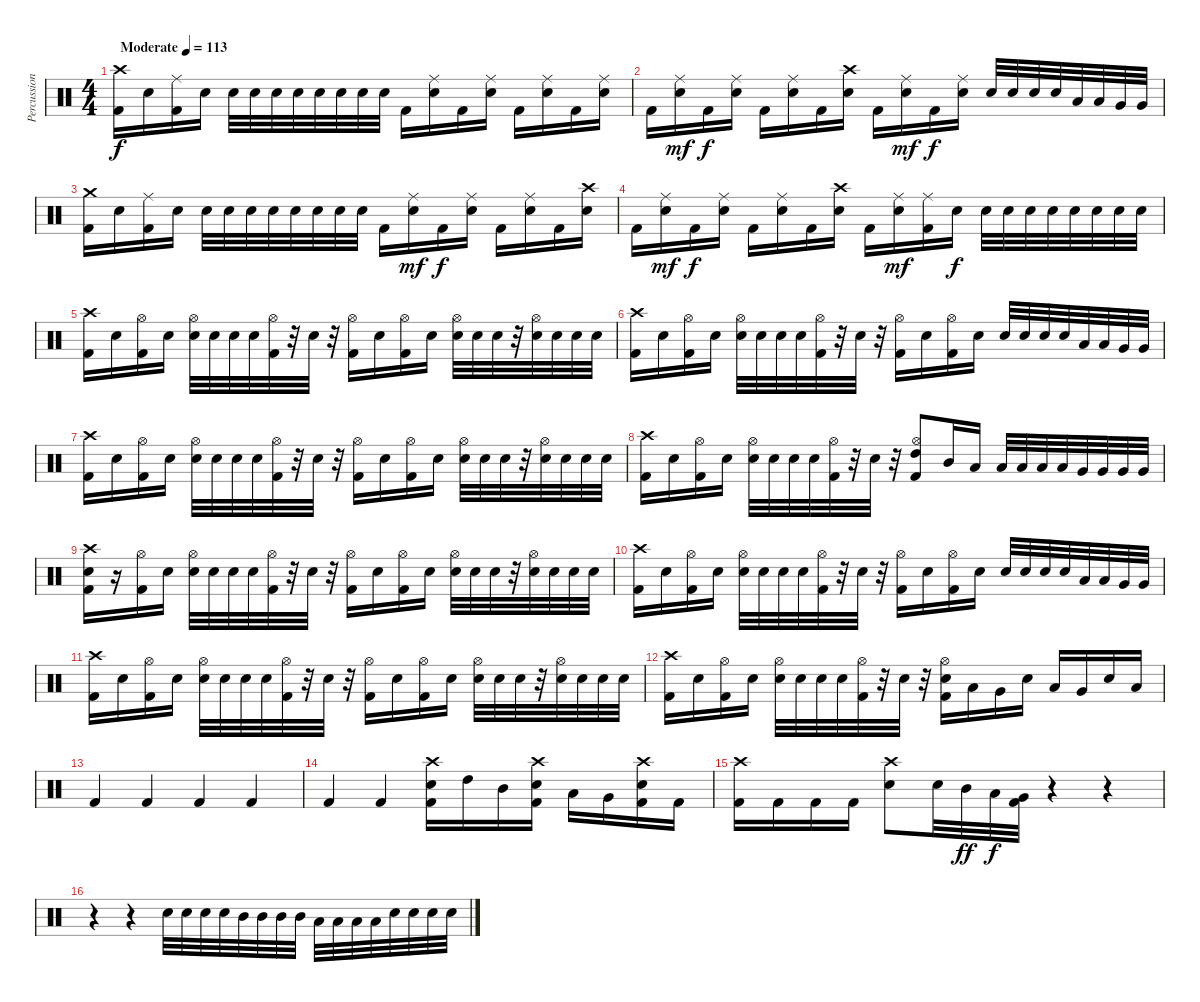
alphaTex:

\track ("Percussion" "Percussion") {instrument percussion}
\staff {score}
\articulation defaults
\ts (4 4)
\tempo (113 "Moderate")
\clef neutral
\ks c
("Crash high (hit)" "Kick (hit) 2").16{dy f} "Electric Snare (hit)".16 ("Ride (middle)" "Kick (hit) 2").16 "Electric Snare (hit)".16 "Electric Snare (hit)".32 "Electric Snare (hit)".32 "Electric Snare (hit)".32 "Electric Snare (hit)".32 "Electric Snare (hit)".32 "Electric Snare (hit)".32 "Electric Snare (hit)".32 "Electric Snare (hit)".32 "Kick (hit) 2".16 ("Ride (middle)" "Electric Snare (hit)").16 "Kick (hit) 2".16 ("Ride (middle)" "Electric Snare (hit)").16 "Kick (hit) 2".16 ("Ride (middle)" "Electric Snare (hit)").16 "Kick (hit) 2".16 ("Ride (middle)" "Electric Snare (hit)").16 |
"Kick (hit) 2".16 ("Ride (middle)" "Electric Snare (hit)").16{dy mf} "Kick (hit) 2".16{dy f} ("Ride (middle)" "Electric Snare (hit)").16 "Kick (hit) 2".16 ("Ride (middle)" "Electric Snare (hit)").16 "Kick (hit) 2".16 ("Crash high (hit)" "Electric Snare (hit)").16 "Kick (hit) 2".16 ("Ride (middle)" "Electric Snare (hit)").16{dy mf} "Kick (hit) 2".16{dy f} ("Ride (middle)" "Electric Snare (hit)").16 "Electric Snare (hit)".32 "Electric Snare (hit)".32 "Electric Snare (hit)".32 "Electric Snare (hit)".32 "Low Tom (hit)".32 "Low Tom (hit)".32 "Very Low Tom (hit)".32 "Very Low Tom (hit)".32 |
("Crash medium (hit)" "Kick (hit) 2").16 "Electric Snare (hit)".16 ("Ride (middle)" "Kick (hit) 2").16 "Electric Snare (hit)".16 "Electric Snare (hit)".32 "Electric Snare (hit)".32 "Electric Snare (hit)".32 "Electric Snare (hit)".32 "Electric Snare (hit)".32 "Electric Snare (hit)".32 "Electric Snare (hit)".32 "Electric Snare (hit)".32 "Kick (hit) 2".16 ("Ride (middle)" "Electric Snare (hit)").16{dy mf} "Kick (hit) 2".16{dy f} ("Ride (middle)" "Electric Snare (hit)").16 "Kick (hit) 2".16 ("Ride (middle)" "Electric Snare (hit)").16 "Kick (hit) 2".16 ("Crash high (hit)" "Electric Snare (hit)").16 |
"Kick (hit) 2".16 ("Ride (middle)" "Electric Snare (hit)").16{dy mf} "Kick (hit) 2".16{dy f} ("Ride (middle)" "Electric Snare (hit)").16 "Kick (hit) 2".16 ("Ride (middle)" "Electric Snare (hit)").16 "Kick (hit) 2".16 ("Crash high (hit)" "Electric Snare (hit)").16 "Kick (hit) 2".16 ("Ride (middle)" "Electric Snare (hit)").16{dy mf} ("Ride (middle)" "Kick (hit) 2").16 "Electric Snare (hit)".16{dy f} "Electric Snare (hit)".32 "Electric Snare (hit)".32 "Electric Snare (hit)".32 "Electric Snare (hit)".32 "Electric Snare (hit)".32 "Electric Snare (hit)".32 "Electric Snare (hit)".32 "Electric Snare (hit)".32 |
("Crash high (hit)" "Kick (hit) 2").16 "Electric Snare (hit)".16 ("Hi-Hat (open)" "Kick (hit) 2").16 "Electric Snare (hit)".16 ("Hi-Hat (open)" "Electric Snare (hit)").32 "Electric Snare (hit)".32 "Electric Snare (hit)".32 "Electric Snare (hit)".32 ("Hi-Hat (open)" "Kick (hit) 2").32 r.32 "Electric Snare (hit)".32 r.32 ("Hi-Hat (open)" "Kick (hit) 2").16 "Electric Snare (hit)".16 ("Hi-Hat (open)" "Kick (hit) 2").16 "Electric Snare (hit)".16 ("Hi-Hat (open)" "Electric Snare (hit)").32 "Electric Snare (hit)".32 "Electric Snare (hit)".32 r.32 ("Hi-Hat (open)" "Electric Snare (hit)").32 "Electric Snare (hit)".32 "Electric Snare (hit)".32 "Electric Snare (hit)".32 |
("Crash high (hit)" "Kick (hit) 2").16 "Electric Snare (hit)".16 ("Hi-Hat (open)" "Kick (hit) 2").16 "Electric Snare (hit)".16 ("Hi-Hat (open)" "Electric Snare (hit)").32 "Electric Snare (hit)".32 "Electric Snare (hit)".32 "Electric Snare (hit)".32 ("Hi-Hat (open)" "Kick (hit) 2").32 r.32 "Electric Snare (hit)".32 r.32 ("Hi-Hat (open)" "Kick (hit) 2").16 "Electric Snare (hit)".16 ("Hi-Hat (open)" "Kick (hit) 2").16 "Electric Snare (hit)".16 "Electric Snare (hit)".32 "Electric Snare (hit)".32 "Electric Snare (hit)".32 "Electric Snare (hit)".32 "Low Tom (hit)".32 "Low Tom (hit)".32 "Very Low Tom (hit)".32 "Very Low Tom (hit)".32 |
("Crash high (hit)" "Kick (hit) 2").16 "Electric Snare (hit)".16 ("Hi-Hat (open)" "Kick (hit) 2").16 "Electric Snare (hit)".16 ("Hi-Hat (open)" "Electric Snare (hit)").32 "Electric Snare (hit)".32 "Electric Snare (hit)".32 "Electric Snare (hit)".32 ("Hi-Hat (open)" "Kick (hit) 2").32 r.32 "Electric Snare (hit)".32 r.32 ("Hi-Hat (open)" "Kick (hit) 2").16 "Electric Snare (hit)".16 ("Hi-Hat (open)" "Kick (hit) 2").16 "Electric Snare (hit)".16 ("Hi-Hat (open)" "Electric Snare (hit)").32 "Electric Snare (hit)".32 "Electric Snare (hit)".32 r.32 ("Hi-Hat (open)" "Electric Snare (hit)").32 "Electric Snare (hit)".32 "Electric Snare (hit)".32 "Electric Snare (hit)".32 |
("Crash high (hit)" "Kick (hit) 2").16 "Electric Snare (hit)".16 ("Hi-Hat (open)" "Kick (hit) 2").16 "Electric Snare (hit)".16 ("Hi-Hat (open)" "Electric Snare (hit)").32 "Electric Snare (hit)".32 "Electric Snare (hit)".32 "Electric Snare (hit)".32 ("Hi-Hat (open)" "Kick (hit) 2").32 r.32 "Electric Snare (hit)".32 r.32 ("Hi-Hat (open)" "High Tom (hit)" "Kick (hit) 2").8 "Mid Tom (hit)".16 "Low Tom (hit)".16 "Low Tom (hit)".32 "Low Tom (hit)".32 "Low Tom (hit)".32 "Low Tom (hit)".32 "Very Low Tom (hit)".32 "Very Low Tom (hit)".32 "Very Low Tom (hit)".32 "Very Low Tom (hit)".32 |
("Crash high (hit)" "Electric Snare (hit)" "Kick (hit) 2").16 r.16 ("Hi-Hat (open)" "Kick (hit) 2").16 "Electric Snare (hit)".16 ("Hi-Hat (open)" "Electric Snare (hit)").32 "Electric Snare (hit)".32 "Electric Snare (hit)".32 "Electric Snare (hit)".32 ("Hi-Hat (open)" "Kick (hit) 2").32 r.32 "Electric Snare (hit)".32 r.32 ("Hi-Hat (open)" "Kick (hit) 2").16 "Electric Snare (hit)".16 ("Hi-Hat (open)" "Kick (hit) 2").16 "Electric Snare (hit)".16 ("Hi-Hat (open)" "Electric Snare (hit)").32 "Electric Snare (hit)".32 "Electric Snare (hit)".32 r.32 ("Hi-Hat (open)" "Electric Snare (hit)").32 "Electric Snare (hit)".32 "Electric Snare (hit)".32 "Electric Snare (hit)".32 |
("Crash high (hit)" "Kick (hit) 2").16 "Electric Snare (hit)".16 ("Hi-Hat (open)" "Kick (hit) 2").16 "Electric Snare (hit)".16 ("Hi-Hat (open)" "Electric Snare (hit)").32 "Electric Snare (hit)".32 "Electric Snare (hit)".32 "Electric Snare (hit)".32 ("Hi-Hat (open)" "Kick (hit) 2").32 r.32 "Electric Snare (hit)".32 r.32 ("Hi-Hat (open)" "Kick (hit) 2").16 "Electric Snare (hit)".16 ("Hi-Hat (open)" "Kick (hit) 2").16 "Electric Snare (hit)".16 "Electric Snare (hit)".32 "Electric Snare (hit)".32 "Electric Snare (hit)".32 "Electric Snare (hit)".32 "Low Tom (hit)".32 "Low Tom (hit)".32 "Very Low Tom (hit)".32 "Very Low Tom (hit)".32 |
("Crash high (hit)" "Kick (hit) 2").16 "Electric Snare (hit)".16 ("Hi-Hat (open)" "Kick (hit) 2").16 "Electric Snare (hit)".16 ("Hi-Hat (open)" "Electric Snare (hit)").32 "Electric Snare (hit)".32 "Electric Snare (hit)".32 "Electric Snare (hit)".32 ("Hi-Hat (open)" "Kick (hit) 2").32 r.32 "Electric Snare (hit)".32 r.32 ("Hi-Hat (open)" "Kick (hit) 2").16 "Electric Snare (hit)".16 ("Hi-Hat (open)" "Kick (hit) 2").16 "Electric Snare (hit)".16 ("Hi-Hat (open)" "Electric Snare (hit)").32 "Electric Snare (hit)".32 "Electric Snare (hit)".32 r.32 ("Hi-Hat (open)" "Electric Snare (hit)").32 "Electric Snare (hit)".32 "Electric Snare (hit)".32 "Electric Snare (hit)".32 |
("Crash high (hit)" "Kick (hit) 2").16 "Electric Snare (hit)".16 ("Hi-Hat (open)" "Kick (hit) 2").16 "Electric Snare (hit)".16 ("Hi-Hat (open)" "Electric Snare (hit)").32 "Electric Snare (hit)".32 "Electric Snare (hit)".32 "Electric Snare (hit)".32 ("Hi-Hat (open)" "Kick (hit) 2").32 r.32 "Electric Snare (hit)".32 r.32 ("Hi-Hat (open)" "Electric Snare (hit)" "Kick (hit) 2").16 "Low Tom (hit)".16 "Very Low Tom (hit)".16 "Electric Snare (hit)".16 "Low Tom (hit)".16 "Very Low Tom (hit)".16 "Electric Snare (hit)".16 "Low Tom (hit)".16 |
"Kick (hit) 2".4 "Kick (hit) 2".4 "Kick (hit) 2".4 "Kick (hit) 2".4 |
"Kick (hit) 2".4 "Kick (hit) 2".4 ("Crash high (hit)" "Electric Snare (hit)" "Kick (hit) 2").16 "High Tom (hit)".16 "Mid Tom (hit)".16 ("Crash high (hit)" "Electric Snare (hit)" "Kick (hit) 2").16 "Low Tom (hit)".16 "Very Low Tom (hit)".16 ("Crash high (hit)" "Electric Snare (hit)" "Kick (hit) 2").16 "Kick (hit) 2".16 |
("Crash high (hit)" "Kick (hit) 2").16 "Kick (hit) 2".16 "Kick (hit) 2".16 "Kick (hit) 2".16 ("Crash high (hit)" "Electric Snare (hit)").8 "Electric Snare (hit)".32 "Mid Tom (hit)".32{dy ff} "Low Tom (hit)".32{dy f} ("Very Low Tom (hit)" "Kick (hit) 2").32 r.4 r.4 |
r.4 r.4 "Electric Snare (hit)".32 "Electric Snare (hit)".32 "Electric Snare (hit)".32 "Electric Snare (hit)".32 "Mid Tom (hit)".32 "Mid Tom (hit)".32 "Mid Tom (hit)".32 "Mid Tom (hit)".32 "Low Tom (hit)".32 "Low Tom (hit)".32 "Low Tom (hit)".32 "Low Tom (hit)".32 "Electric Snare (hit)".32 "Electric Snare (hit)".32 "Electric Snare (hit)".32 "Electric Snare (hit)".32
